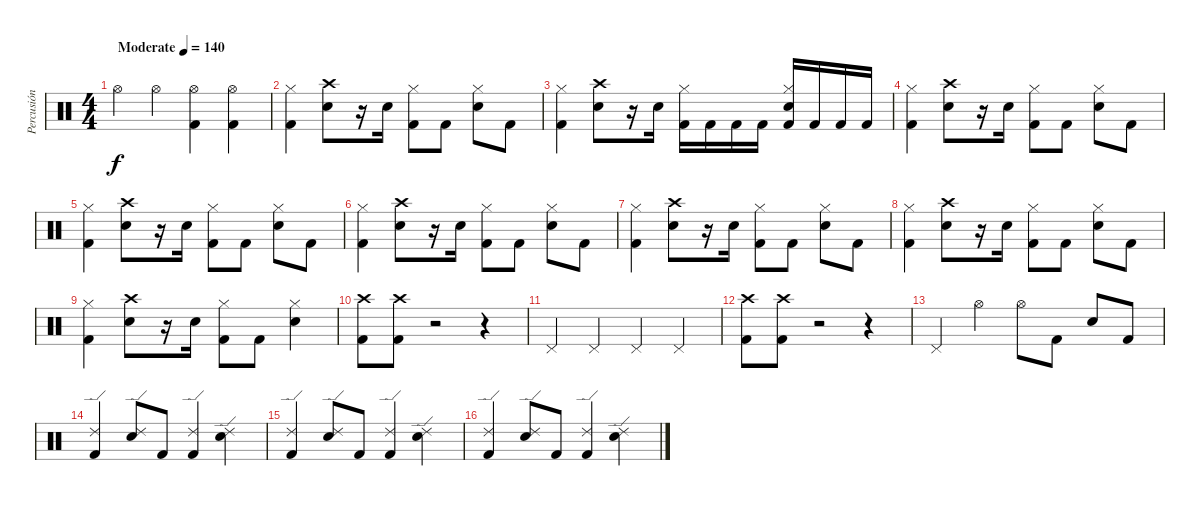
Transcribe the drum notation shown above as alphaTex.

\track ("Percusión" "Percusión") {instrument percussion}
\staff {score}
\articulation defaults
\ts (4 4)
\tempo (140 "Moderate")
\clef neutral
\ks c "Hi-Hat (open)".4{dy f} "Hi-Hat (open)".4
("Hi-Hat (open)" "Kick (hit) 2").4 ("Hi-Hat (open)" "Kick (hit) 2").4 |
("Hi-Hat (closed)" "Kick (hit) 2").4 ("Crash high (hit)" "Snare (hit) 2").8 r.16 "Snare (hit) 2".16 ("Hi-Hat (closed)" "Kick (hit) 2").8 "Kick (hit) 2".8 ("Hi-Hat (closed)" "Snare (hit) 2").8 "Kick (hit) 2".8 |
("Hi-Hat (closed)" "Kick (hit) 2").4 ("Crash high (hit)" "Snare (hit) 2").8 r.16 "Snare (hit) 2".16 ("Hi-Hat (closed)" "Kick (hit) 2").16 "Kick (hit) 2".16 "Kick (hit) 2".16 "Kick (hit) 2".16 ("Hi-Hat (closed)" "Snare (hit) 2" "Kick (hit) 2").16 "Kick (hit) 2".16 "Kick (hit) 2".16 "Kick (hit) 2".16 |
("Hi-Hat (closed)" "Kick (hit) 2").4 ("Crash high (hit)" "Snare (hit) 2").8 r.16 "Snare (hit) 2".16 ("Hi-Hat (closed)" "Kick (hit) 2").8 "Kick (hit) 2".8 ("Hi-Hat (closed)" "Snare (hit) 2").8 "Kick (hit) 2".8 |
("Hi-Hat (closed)" "Kick (hit) 2").4 ("Crash high (hit)" "Snare (hit) 2").8 r.16 "Snare (hit) 2".16 ("Hi-Hat (closed)" "Kick (hit) 2").8 "Kick (hit) 2".8 ("Hi-Hat (closed)" "Snare (hit) 2").8 "Kick (hit) 2".8 |
("Hi-Hat (closed)" "Kick (hit) 2").4 ("Crash high (hit)" "Snare (hit) 2").8 r.16 "Snare (hit) 2".16 ("Hi-Hat (closed)" "Kick (hit) 2").8 "Kick (hit) 2".8 ("Hi-Hat (closed)" "Snare (hit) 2").8 "Kick (hit) 2".8 |
("Hi-Hat (closed)" "Kick (hit) 2").4 ("Crash high (hit)" "Snare (hit) 2").8 r.16 "Snare (hit) 2".16 ("Hi-Hat (closed)" "Kick (hit) 2").8 "Kick (hit) 2".8 ("Hi-Hat (closed)" "Snare (hit) 2").8 "Kick (hit) 2".8 |
("Hi-Hat (closed)" "Kick (hit) 2").4 ("Crash high (hit)" "Snare (hit) 2").8 r.16 "Snare (hit) 2".16 ("Hi-Hat (closed)" "Kick (hit) 2").8 "Kick (hit) 2".8 ("Hi-Hat (closed)" "Snare (hit) 2").8 "Kick (hit) 2".8 |
("Hi-Hat (closed)" "Kick (hit) 2").4 ("Crash high (hit)" "Snare (hit) 2").8 r.16 "Snare (hit) 2".16 ("Hi-Hat (closed)" "Kick (hit) 2").8 "Kick (hit) 2".8 ("Hi-Hat (closed)" "Snare (hit) 2").4 |
("Crash high (hit)" "Kick (hit) 2").8 ("Crash high (hit)" "Kick (hit) 2").8 r.2 r.4 |
"Pedal Hi-Hat (hit)".4 "Pedal Hi-Hat (hit)".4 "Pedal Hi-Hat (hit)".4 "Pedal Hi-Hat (hit)".4 |
("Crash high (hit)" "Kick (hit) 2").8 ("Crash high (hit)" "Kick (hit) 2").8 r.2 r.4 |
"Pedal Hi-Hat (hit)".4 "Hi-Hat (open)".4 "Hi-Hat (open)".8 "Kick (hit) 2".8 "Snare (hit) 2".8 "Kick (hit) 2".8 |
("Ride (edge) 2" "Kick (hit) 2").4 ("Ride (edge) 2" "Snare (hit) 2").8 "Kick (hit) 2".8 ("Ride (edge) 2" "Kick (hit) 2").4 ("Ride (edge) 2" "Snare (hit) 2").4 |
("Ride (edge) 2" "Kick (hit) 2").4 ("Ride (edge) 2" "Snare (hit) 2").8 "Kick (hit) 2".8 ("Ride (edge) 2" "Kick (hit) 2").4 ("Ride (edge) 2" "Snare (hit) 2").4 |
("Ride (edge) 2" "Kick (hit) 2").4 ("Ride (edge) 2" "Snare (hit) 2").8 "Kick (hit) 2".8 ("Ride (edge) 2" "Kick (hit) 2").4 ("Ride (edge) 2" "Snare (hit) 2").4
